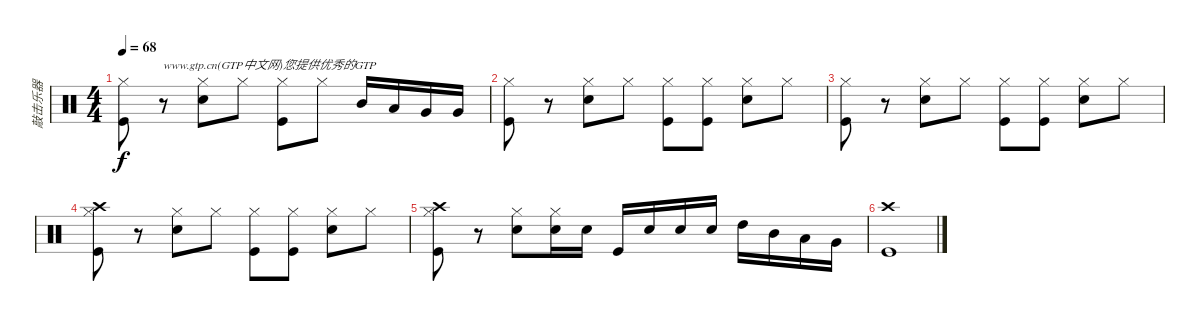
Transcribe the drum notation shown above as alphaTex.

\track ("敲击乐器" "敲击乐器") {instrument percussion}
\staff {score}
\articulation defaults
\ts (4 4)
\tempo 68
\clef neutral
\ks c
("Hi-Hat (closed)" "Kick (hit)").8{dy f} r.8{txt "www.gtp.cn(GTP中文网)您提供优秀的GTP"} ("Hi-Hat (closed)" "Snare (hit) 2").8 "Hi-Hat (closed)".8 ("Hi-Hat (closed)" "Kick (hit)").8 "Hi-Hat (closed)".8 "Mid Tom (hit)".16 "Low Tom (hit)".16 "Very Low Tom (hit)".16 "Very Low Tom (hit)".16 |
("Hi-Hat (closed)" "Kick (hit)").8 r.8 ("Hi-Hat (closed)" "Snare (hit) 2").8 "Hi-Hat (closed)".8 ("Hi-Hat (closed)" "Kick (hit)").8 ("Hi-Hat (closed)" "Kick (hit)").8 ("Hi-Hat (closed)" "Snare (hit) 2").8 "Hi-Hat (closed)".8 |
("Hi-Hat (closed)" "Kick (hit)").8 r.8 ("Hi-Hat (closed)" "Snare (hit) 2").8 "Hi-Hat (closed)".8 ("Hi-Hat (closed)" "Kick (hit)").8 ("Hi-Hat (closed)" "Kick (hit)").8 ("Hi-Hat (closed)" "Snare (hit) 2").8 "Hi-Hat (closed)".8 |
("Hi-Hat (closed)" "Crash high (hit)" "Kick (hit)").8 r.8 ("Hi-Hat (closed)" "Snare (hit) 2").8 "Hi-Hat (closed)".8 ("Hi-Hat (closed)" "Kick (hit)").8 ("Hi-Hat (closed)" "Kick (hit)").8 ("Hi-Hat (closed)" "Snare (hit) 2").8 "Hi-Hat (closed)".8 |
("Hi-Hat (closed)" "Crash high (hit)" "Kick (hit)").8 r.8 ("Hi-Hat (closed)" "Snare (hit) 2").8 ("Hi-Hat (closed)" "Snare (hit) 2").16 "Snare (hit) 2".16 "Kick (hit)".16 "Snare (hit) 2".16 "Snare (hit) 2".16 "Snare (hit) 2".16 "High Tom (hit)".16 "Mid Tom (hit)".16 "Low Tom (hit)".16 "Very Low Tom (hit)".16 |
("Crash high (hit)" "Kick (hit)").1
